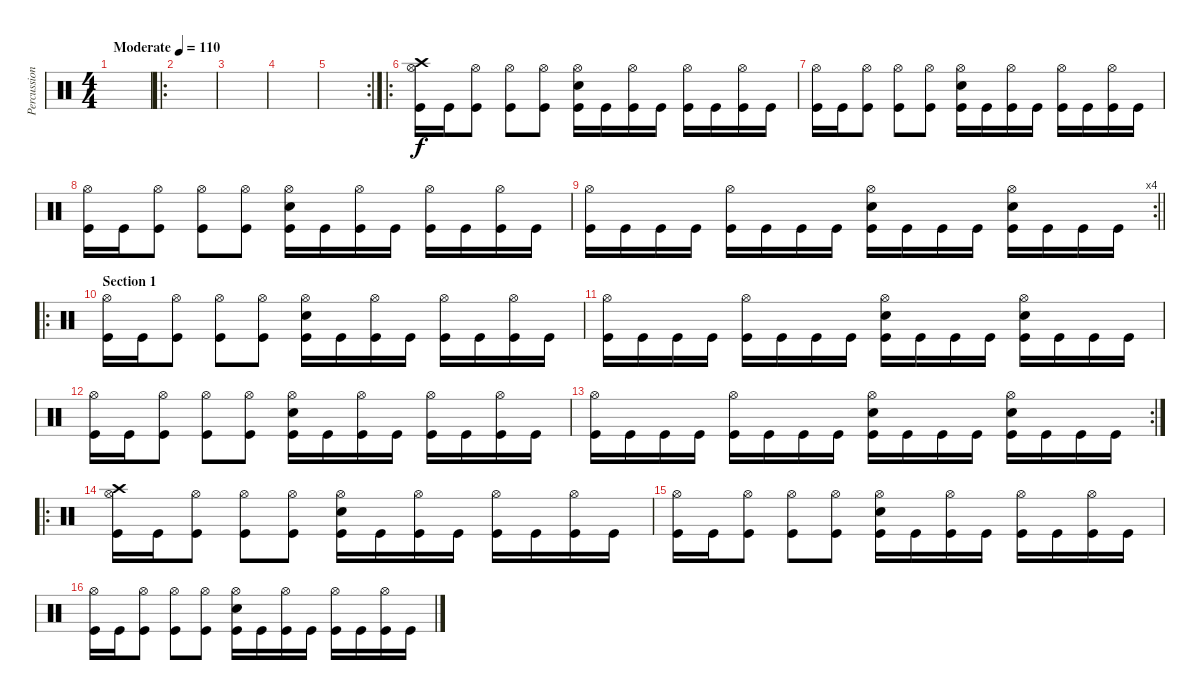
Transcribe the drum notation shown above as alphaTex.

\track ("Percussion" "Percussion") {instrument percussion}
\staff {score}
\articulation defaults
\ts (4 4)
\tempo (110 "Moderate")
\clef neutral
\ks c
|
\ro
|
|
|
\rc 2
|
\ro
("Hi-Hat (open)" "Crash high (hit)" "Kick (hit)").16 "Kick (hit)".16 ("Hi-Hat (open)" "Kick (hit)").8 ("Hi-Hat (open)" "Kick (hit)").8 ("Hi-Hat (open)" "Kick (hit)").8 ("Hi-Hat (open)" "Electric Snare (hit)" "Kick (hit)").16 "Kick (hit)".16 ("Hi-Hat (open)" "Kick (hit)").16 "Kick (hit)".16 ("Hi-Hat (open)" "Kick (hit)").16 "Kick (hit)".16 ("Hi-Hat (open)" "Kick (hit)").16 "Kick (hit)".16 |
("Hi-Hat (open)" "Kick (hit)").16 "Kick (hit)".16 ("Hi-Hat (open)" "Kick (hit)").8 ("Hi-Hat (open)" "Kick (hit)").8 ("Hi-Hat (open)" "Kick (hit)").8 ("Hi-Hat (open)" "Electric Snare (hit)" "Kick (hit)").16 "Kick (hit)".16 ("Hi-Hat (open)" "Kick (hit)").16 "Kick (hit)".16 ("Hi-Hat (open)" "Kick (hit)").16 "Kick (hit)".16 ("Hi-Hat (open)" "Kick (hit)").16 "Kick (hit)".16 |
("Hi-Hat (open)" "Kick (hit)").16 "Kick (hit)".16 ("Hi-Hat (open)" "Kick (hit)").8 ("Hi-Hat (open)" "Kick (hit)").8 ("Hi-Hat (open)" "Kick (hit)").8 ("Hi-Hat (open)" "Electric Snare (hit)" "Kick (hit)").16 "Kick (hit)".16 ("Hi-Hat (open)" "Kick (hit)").16 "Kick (hit)".16 ("Hi-Hat (open)" "Kick (hit)").16 "Kick (hit)".16 ("Hi-Hat (open)" "Kick (hit)").16 "Kick (hit)".16 |
\rc 4
\barLineRight lightlight
("Hi-Hat (open)" "Kick (hit)").16 "Kick (hit)".16 "Kick (hit)".16 "Kick (hit)".16 ("Hi-Hat (open)" "Kick (hit)").16 "Kick (hit)".16 "Kick (hit)".16 "Kick (hit)".16 ("Hi-Hat (open)" "Electric Snare (hit)" "Kick (hit)").16 "Kick (hit)".16 "Kick (hit)".16 "Kick (hit)".16 ("Hi-Hat (open)" "Electric Snare (hit)" "Kick (hit)").16 "Kick (hit)".16 "Kick (hit)".16 "Kick (hit)".16 |
\ro
\section ("" "Section 1")
("Hi-Hat (open)" "Kick (hit)").16 "Kick (hit)".16 ("Hi-Hat (open)" "Kick (hit)").8 ("Hi-Hat (open)" "Kick (hit)").8 ("Hi-Hat (open)" "Kick (hit)").8 ("Hi-Hat (open)" "Electric Snare (hit)" "Kick (hit)").16 "Kick (hit)".16 ("Hi-Hat (open)" "Kick (hit)").16 "Kick (hit)".16 ("Hi-Hat (open)" "Kick (hit)").16 "Kick (hit)".16 ("Hi-Hat (open)" "Kick (hit)").16 "Kick (hit)".16 |
("Hi-Hat (open)" "Kick (hit)").16 "Kick (hit)".16 "Kick (hit)".16 "Kick (hit)".16 ("Hi-Hat (open)" "Kick (hit)").16 "Kick (hit)".16 "Kick (hit)".16 "Kick (hit)".16 ("Hi-Hat (open)" "Electric Snare (hit)" "Kick (hit)").16 "Kick (hit)".16 "Kick (hit)".16 "Kick (hit)".16 ("Hi-Hat (open)" "Electric Snare (hit)" "Kick (hit)").16 "Kick (hit)".16 "Kick (hit)".16 "Kick (hit)".16 |
("Hi-Hat (open)" "Kick (hit)").16 "Kick (hit)".16 ("Hi-Hat (open)" "Kick (hit)").8 ("Hi-Hat (open)" "Kick (hit)").8 ("Hi-Hat (open)" "Kick (hit)").8 ("Hi-Hat (open)" "Electric Snare (hit)" "Kick (hit)").16 "Kick (hit)".16 ("Hi-Hat (open)" "Kick (hit)").16 "Kick (hit)".16 ("Hi-Hat (open)" "Kick (hit)").16 "Kick (hit)".16 ("Hi-Hat (open)" "Kick (hit)").16 "Kick (hit)".16 |
\rc 2
("Hi-Hat (open)" "Kick (hit)").16 "Kick (hit)".16 "Kick (hit)".16 "Kick (hit)".16 ("Hi-Hat (open)" "Kick (hit)").16 "Kick (hit)".16 "Kick (hit)".16 "Kick (hit)".16 ("Hi-Hat (open)" "Electric Snare (hit)" "Kick (hit)").16 "Kick (hit)".16 "Kick (hit)".16 "Kick (hit)".16 ("Hi-Hat (open)" "Electric Snare (hit)" "Kick (hit)").16 "Kick (hit)".16 "Kick (hit)".16 "Kick (hit)".16 |
\ro
("Hi-Hat (open)" "Crash high (hit)" "Kick (hit)").16 "Kick (hit)".16 ("Hi-Hat (open)" "Kick (hit)").8 ("Hi-Hat (open)" "Kick (hit)").8 ("Hi-Hat (open)" "Kick (hit)").8 ("Hi-Hat (open)" "Electric Snare (hit)" "Kick (hit)").16 "Kick (hit)".16 ("Hi-Hat (open)" "Kick (hit)").16 "Kick (hit)".16 ("Hi-Hat (open)" "Kick (hit)").16 "Kick (hit)".16 ("Hi-Hat (open)" "Kick (hit)").16 "Kick (hit)".16 |
("Hi-Hat (open)" "Kick (hit)").16 "Kick (hit)".16 ("Hi-Hat (open)" "Kick (hit)").8 ("Hi-Hat (open)" "Kick (hit)").8 ("Hi-Hat (open)" "Kick (hit)").8 ("Hi-Hat (open)" "Electric Snare (hit)" "Kick (hit)").16 "Kick (hit)".16 ("Hi-Hat (open)" "Kick (hit)").16 "Kick (hit)".16 ("Hi-Hat (open)" "Kick (hit)").16 "Kick (hit)".16 ("Hi-Hat (open)" "Kick (hit)").16 "Kick (hit)".16 |
("Hi-Hat (open)" "Kick (hit)").16 "Kick (hit)".16 ("Hi-Hat (open)" "Kick (hit)").8 ("Hi-Hat (open)" "Kick (hit)").8 ("Hi-Hat (open)" "Kick (hit)").8 ("Hi-Hat (open)" "Electric Snare (hit)" "Kick (hit)").16 "Kick (hit)".16 ("Hi-Hat (open)" "Kick (hit)").16 "Kick (hit)".16 ("Hi-Hat (open)" "Kick (hit)").16 "Kick (hit)".16 ("Hi-Hat (open)" "Kick (hit)").16 "Kick (hit)".16
